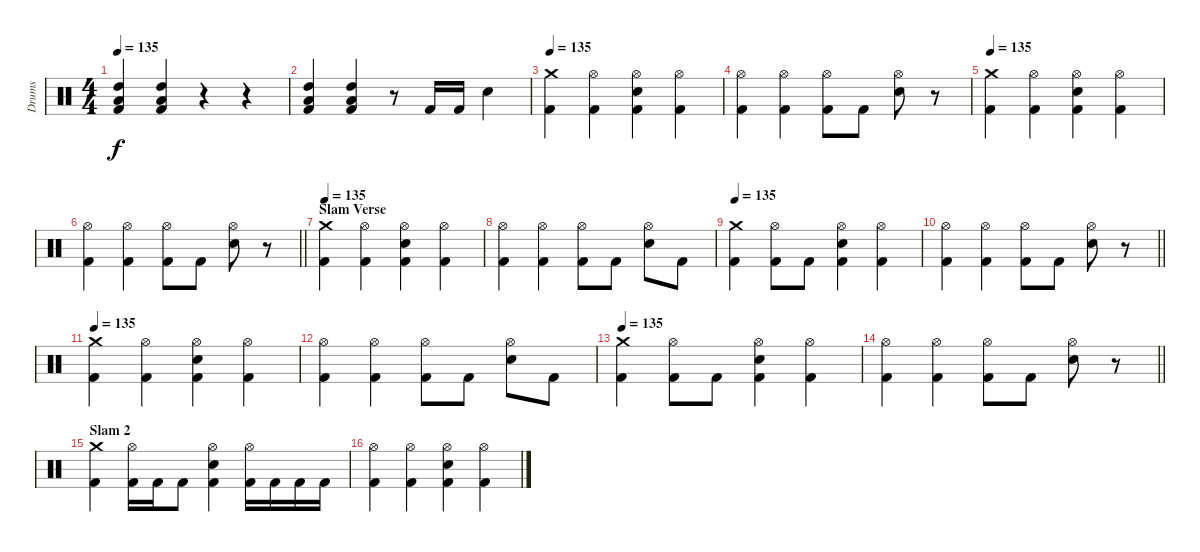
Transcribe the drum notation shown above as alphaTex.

\track ("Drums" "Drums") {instrument percussion}
\staff {score}
\articulation defaults
\ts (4 4)
\tempo 135
\clef neutral
\ks c
("Kick (hit) 2" "High Tom (hit)" "Low Tom (hit)").4{dy f} ("Kick (hit) 2" "High Tom (hit)" "Low Tom (hit)").4 r.4 r.4 |
("High Tom (hit)" "Low Tom (hit)" "Kick (hit) 2").4 ("High Tom (hit)" "Low Tom (hit)" "Kick (hit) 2").4 r.8 "Kick (hit) 2".16 "Kick (hit) 2".16 "Electric Snare (hit)".4 |
\tempo 135
("Crash medium (hit)" "Kick (hit) 2").4 ("Hi-Hat (open)" "Kick (hit) 2").4 ("Hi-Hat (open)" "Electric Snare (hit)" "Kick (hit) 2").4 ("Hi-Hat (open)" "Kick (hit) 2").4 |
("Hi-Hat (open)" "Kick (hit) 2").4 ("Hi-Hat (open)" "Kick (hit) 2").4 ("Hi-Hat (open)" "Kick (hit) 2").8 "Kick (hit) 2".8 ("Hi-Hat (open)" "Electric Snare (hit)").8 r.8 |
\tempo 135
("Crash medium (hit)" "Kick (hit) 2").4 ("Hi-Hat (open)" "Kick (hit) 2").4 ("Hi-Hat (open)" "Electric Snare (hit)" "Kick (hit) 2").4 ("Hi-Hat (open)" "Kick (hit) 2").4 |
\barLineRight lightlight
("Hi-Hat (open)" "Kick (hit) 2").4 ("Hi-Hat (open)" "Kick (hit) 2").4 ("Hi-Hat (open)" "Kick (hit) 2").8 "Kick (hit) 2".8 ("Hi-Hat (open)" "Electric Snare (hit)").8 r.8 |
\section ("" "Slam Verse ")
\tempo 135
("Crash medium (hit)" "Kick (hit) 2").4 ("Hi-Hat (open)" "Kick (hit) 2").4 ("Hi-Hat (open)" "Electric Snare (hit)" "Kick (hit) 2").4 ("Hi-Hat (open)" "Kick (hit) 2").4 |
("Hi-Hat (open)" "Kick (hit) 2").4 ("Hi-Hat (open)" "Kick (hit) 2").4 ("Hi-Hat (open)" "Kick (hit) 2").8 "Kick (hit) 2".8 ("Hi-Hat (open)" "Electric Snare (hit)").8 "Kick (hit) 2".8 |
\tempo 135
("Crash medium (hit)" "Kick (hit) 2").4 ("Hi-Hat (open)" "Kick (hit) 2").8 "Kick (hit) 2".8 ("Hi-Hat (open)" "Electric Snare (hit)" "Kick (hit) 2").4 ("Hi-Hat (open)" "Kick (hit) 2").4 |
\barLineRight lightlight
("Hi-Hat (open)" "Kick (hit) 2").4 ("Hi-Hat (open)" "Kick (hit) 2").4 ("Hi-Hat (open)" "Kick (hit) 2").8 "Kick (hit) 2".8 ("Hi-Hat (open)" "Electric Snare (hit)").8 r.8 |
\tempo 135
("Crash medium (hit)" "Kick (hit) 2").4 ("Hi-Hat (open)" "Kick (hit) 2").4 ("Hi-Hat (open)" "Electric Snare (hit)" "Kick (hit) 2").4 ("Hi-Hat (open)" "Kick (hit) 2").4 |
("Hi-Hat (open)" "Kick (hit) 2").4 ("Hi-Hat (open)" "Kick (hit) 2").4 ("Hi-Hat (open)" "Kick (hit) 2").8 "Kick (hit) 2".8 ("Hi-Hat (open)" "Electric Snare (hit)").8 "Kick (hit) 2".8 |
\tempo 135
("Crash medium (hit)" "Kick (hit) 2").4 ("Hi-Hat (open)" "Kick (hit) 2").8 "Kick (hit) 2".8 ("Hi-Hat (open)" "Electric Snare (hit)" "Kick (hit) 2").4 ("Hi-Hat (open)" "Kick (hit) 2").4 |
\barLineRight lightlight
("Hi-Hat (open)" "Kick (hit) 2").4 ("Hi-Hat (open)" "Kick (hit) 2").4 ("Hi-Hat (open)" "Kick (hit) 2").8 "Kick (hit) 2".8 ("Hi-Hat (open)" "Electric Snare (hit)").8 r.8 |
\section ("" "Slam 2")
("Crash medium (hit)" "Kick (hit) 2").4 ("Hi-Hat (open)" "Kick (hit) 2").16 "Kick (hit) 2".16 "Kick (hit) 2".8 ("Hi-Hat (open)" "Electric Snare (hit)" "Kick (hit) 2").4 ("Hi-Hat (open)" "Kick (hit) 2").16 "Kick (hit) 2".16 "Kick (hit) 2".16 "Kick (hit) 2".16 |
("Hi-Hat (open)" "Kick (hit) 2").4 ("Hi-Hat (open)" "Kick (hit) 2").4 ("Hi-Hat (open)" "Electric Snare (hit)" "Kick (hit) 2").4 ("Hi-Hat (open)" "Kick (hit) 2").4
